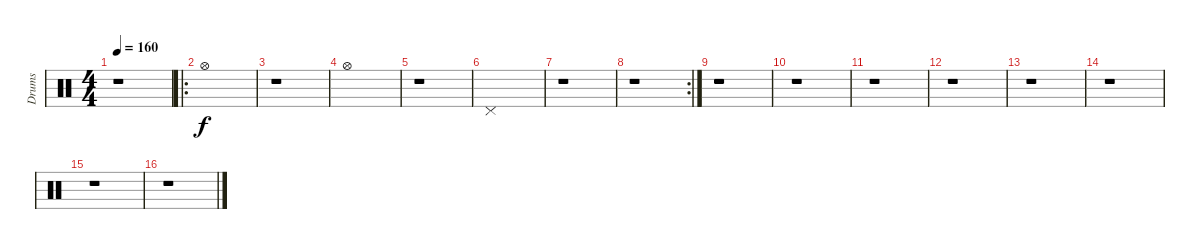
\track ("Drums" "Drums") {instrument percussion}
\staff {score}
\articulation defaults
\ts (4 4)
\tempo 160
\clef neutral
\ks c
r.1{dy f} |
\ro "Hi-Hat (open)".1
|
r.1 |
"Hi-Hat (open)".1 |
r.1 |
"Pedal Hi-Hat (hit)".1 |
r.1 |
\rc 2
r.1 |
r.1 |
r.1 |
r.1 |
r.1 |
r.1 |
r.1 |
r.1 |
r.1
